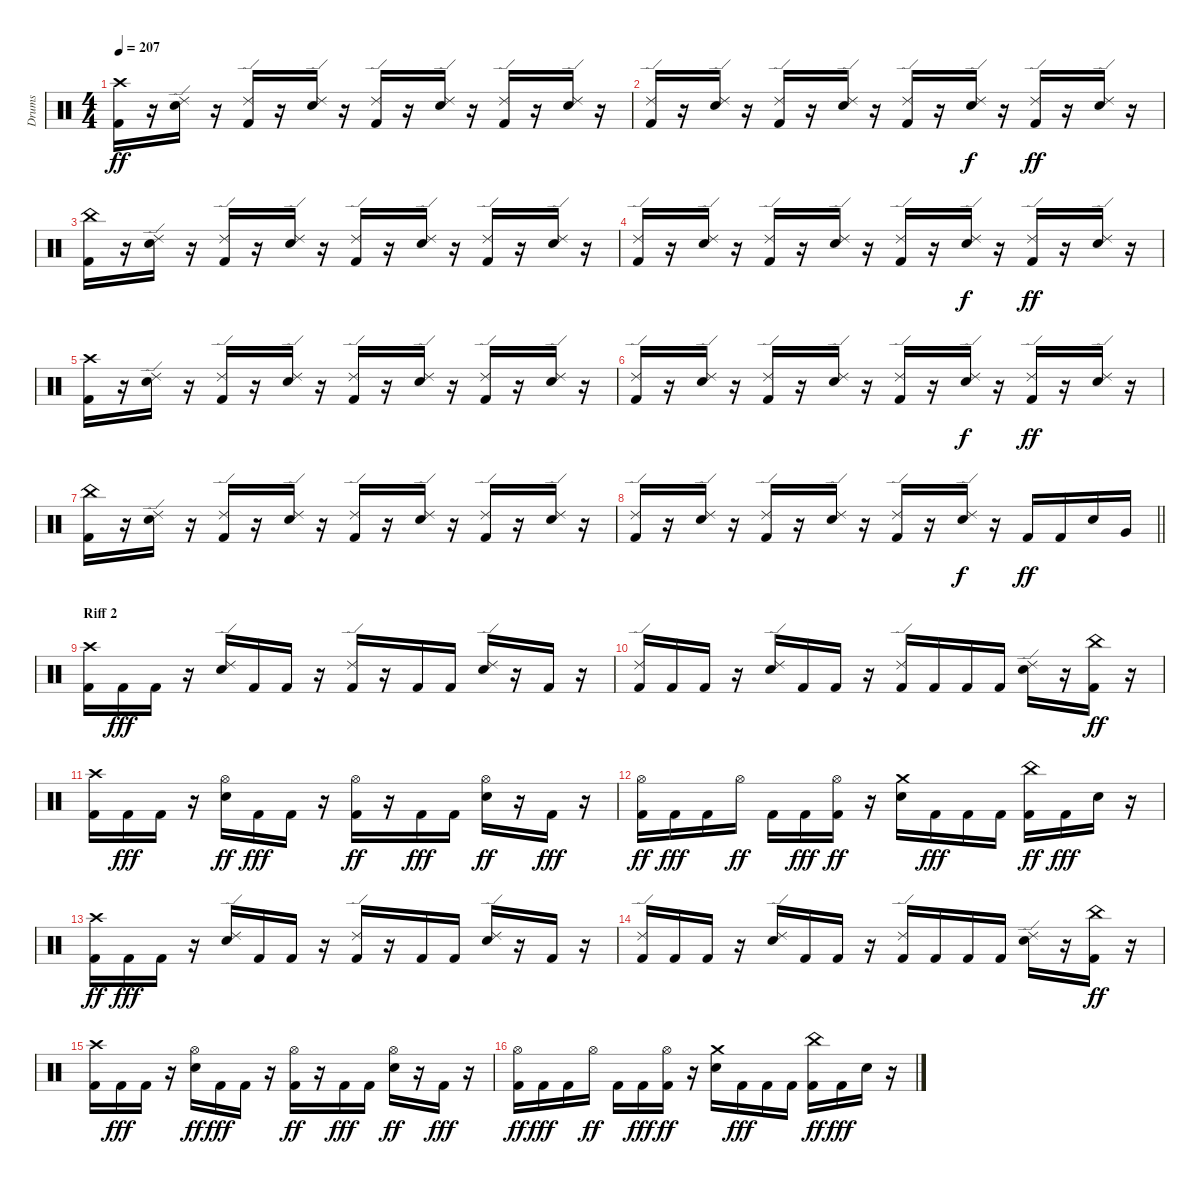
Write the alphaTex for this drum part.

\track ("Drums" "Drums") {instrument percussion}
\staff {score}
\articulation defaults
\ts (4 4)
\tempo 207
\clef neutral
\ks c
("Kick (hit) 2" "Crash high (hit)").16{dy ff} r.16 ("Snare (hit) 2" "Ride (edge) 2").16 r.16 ("Kick (hit) 2" "Ride (edge) 2").16 r.16 ("Snare (hit) 2" "Ride (edge) 2").16 r.16 ("Kick (hit) 2" "Ride (edge) 2").16 r.16 ("Snare (hit) 2" "Ride (edge) 2").16 r.16 ("Kick (hit) 2" "Ride (edge) 2").16 r.16 ("Snare (hit) 2" "Ride (edge) 2").16 r.16 |
("Kick (hit) 2" "Ride (edge) 2").16 r.16 ("Snare (hit) 2" "Ride (edge) 2").16 r.16 ("Kick (hit) 2" "Ride (edge) 2").16 r.16 ("Snare (hit) 2" "Ride (edge) 2").16 r.16 ("Kick (hit) 2" "Ride (edge) 2").16 r.16 ("Snare (hit) 2" "Ride (edge) 2").16{dy f} r.16 ("Kick (hit) 2" "Ride (edge) 2").16{dy ff} r.16 ("Snare (hit) 2" "Ride (edge) 2").16 r.16 |
("Kick (hit) 2" "China (hit)").16 r.16 ("Snare (hit) 2" "Ride (edge) 2").16 r.16 ("Kick (hit) 2" "Ride (edge) 2").16 r.16 ("Snare (hit) 2" "Ride (edge) 2").16 r.16 ("Kick (hit) 2" "Ride (edge) 2").16 r.16 ("Snare (hit) 2" "Ride (edge) 2").16 r.16 ("Kick (hit) 2" "Ride (edge) 2").16 r.16 ("Snare (hit) 2" "Ride (edge) 2").16 r.16 |
("Kick (hit) 2" "Ride (edge) 2").16 r.16 ("Snare (hit) 2" "Ride (edge) 2").16 r.16 ("Kick (hit) 2" "Ride (edge) 2").16 r.16 ("Snare (hit) 2" "Ride (edge) 2").16 r.16 ("Kick (hit) 2" "Ride (edge) 2").16 r.16 ("Snare (hit) 2" "Ride (edge) 2").16{dy f} r.16 ("Kick (hit) 2" "Ride (edge) 2").16{dy ff} r.16 ("Snare (hit) 2" "Ride (edge) 2").16 r.16 |
("Kick (hit) 2" "Crash high (hit)").16 r.16 ("Snare (hit) 2" "Ride (edge) 2").16 r.16 ("Kick (hit) 2" "Ride (edge) 2").16 r.16 ("Snare (hit) 2" "Ride (edge) 2").16 r.16 ("Kick (hit) 2" "Ride (edge) 2").16 r.16 ("Snare (hit) 2" "Ride (edge) 2").16 r.16 ("Kick (hit) 2" "Ride (edge) 2").16 r.16 ("Snare (hit) 2" "Ride (edge) 2").16 r.16 |
("Kick (hit) 2" "Ride (edge) 2").16 r.16 ("Snare (hit) 2" "Ride (edge) 2").16 r.16 ("Kick (hit) 2" "Ride (edge) 2").16 r.16 ("Snare (hit) 2" "Ride (edge) 2").16 r.16 ("Kick (hit) 2" "Ride (edge) 2").16 r.16 ("Snare (hit) 2" "Ride (edge) 2").16{dy f} r.16 ("Kick (hit) 2" "Ride (edge) 2").16{dy ff} r.16 ("Snare (hit) 2" "Ride (edge) 2").16 r.16 |
("Kick (hit) 2" "China (hit)").16 r.16 ("Snare (hit) 2" "Ride (edge) 2").16 r.16 ("Kick (hit) 2" "Ride (edge) 2").16 r.16 ("Snare (hit) 2" "Ride (edge) 2").16 r.16 ("Kick (hit) 2" "Ride (edge) 2").16 r.16 ("Snare (hit) 2" "Ride (edge) 2").16 r.16 ("Kick (hit) 2" "Ride (edge) 2").16 r.16 ("Snare (hit) 2" "Ride (edge) 2").16 r.16 |
\barLineRight lightlight
("Kick (hit) 2" "Ride (edge) 2").16 r.16 ("Snare (hit) 2" "Ride (edge) 2").16 r.16 ("Kick (hit) 2" "Ride (edge) 2").16 r.16 ("Snare (hit) 2" "Ride (edge) 2").16 r.16 ("Kick (hit) 2" "Ride (edge) 2").16 r.16 ("Snare (hit) 2" "Ride (edge) 2").16{dy f} r.16 "Kick (hit) 2".16{dy ff} "Kick (hit) 2".16 "Snare (hit) 2".16 "Very Low Tom (hit)".16 |
\section ("" "Riff 2")
("Kick (hit) 2" "Crash high (hit)").16 "Kick (hit) 2".16{dy fff} "Kick (hit) 2".16 r.16 ("Snare (hit) 2" "Ride (edge) 2").16 "Kick (hit) 2".16 "Kick (hit) 2".16 r.16 ("Kick (hit) 2" "Ride (edge) 2").16 r.16 "Kick (hit) 2".16 "Kick (hit) 2".16 ("Snare (hit) 2" "Ride (edge) 2").16 r.16 "Kick (hit) 2".16 r.16 |
("Kick (hit) 2" "Ride (edge) 2").16 "Kick (hit) 2".16 "Kick (hit) 2".16 r.16 ("Snare (hit) 2" "Ride (edge) 2").16 "Kick (hit) 2".16 "Kick (hit) 2".16 r.16 ("Kick (hit) 2" "Ride (edge) 2").16 "Kick (hit) 2".16 "Kick (hit) 2".16 "Kick (hit) 2".16 ("Snare (hit) 2" "Ride (edge) 2").16 r.16 ("Kick (hit) 2" "China (hit)").16{dy ff} r.16 |
("Kick (hit) 2" "Crash high (hit)").16 "Kick (hit) 2".16{dy fff} "Kick (hit) 2".16 r.16 ("Snare (hit) 2" "Hi-Hat (open)").16{dy ff} "Kick (hit) 2".16{dy fff} "Kick (hit) 2".16 r.16 ("Kick (hit) 2" "Hi-Hat (open)").16{dy ff} r.16 "Kick (hit) 2".16{dy fff} "Kick (hit) 2".16 ("Snare (hit) 2" "Hi-Hat (open)").16{dy ff} r.16 "Kick (hit) 2".16{dy fff} r.16 |
("Kick (hit) 2" "Hi-Hat (open)").16{dy ff} "Kick (hit) 2".16{dy fff} "Kick (hit) 2".16 "Hi-Hat (open)".16{dy ff} "Kick (hit) 2".16 "Kick (hit) 2".16{dy fff} ("Kick (hit) 2" "Hi-Hat (open)").16{dy ff} r.16 ("Snare (hit) 2" "Crash medium (hit)").16 "Kick (hit) 2".16{dy fff} "Kick (hit) 2".16 "Kick (hit) 2".16 ("Kick (hit) 2" "China (hit)").16{dy ff} "Kick (hit) 2".16{dy fff} "Snare (hit) 2".16 r.16 |
("Kick (hit) 2" "Crash high (hit)").16{dy ff} "Kick (hit) 2".16{dy fff} "Kick (hit) 2".16 r.16 ("Snare (hit) 2" "Ride (edge) 2").16 "Kick (hit) 2".16 "Kick (hit) 2".16 r.16 ("Kick (hit) 2" "Ride (edge) 2").16 r.16 "Kick (hit) 2".16 "Kick (hit) 2".16 ("Snare (hit) 2" "Ride (edge) 2").16 r.16 "Kick (hit) 2".16 r.16 |
("Kick (hit) 2" "Ride (edge) 2").16 "Kick (hit) 2".16 "Kick (hit) 2".16 r.16 ("Snare (hit) 2" "Ride (edge) 2").16 "Kick (hit) 2".16 "Kick (hit) 2".16 r.16 ("Kick (hit) 2" "Ride (edge) 2").16 "Kick (hit) 2".16 "Kick (hit) 2".16 "Kick (hit) 2".16 ("Snare (hit) 2" "Ride (edge) 2").16 r.16 ("Kick (hit) 2" "China (hit)").16{dy ff} r.16 |
("Kick (hit) 2" "Crash high (hit)").16 "Kick (hit) 2".16{dy fff} "Kick (hit) 2".16 r.16 ("Snare (hit) 2" "Hi-Hat (open)").16{dy ff} "Kick (hit) 2".16{dy fff} "Kick (hit) 2".16 r.16 ("Kick (hit) 2" "Hi-Hat (open)").16{dy ff} r.16 "Kick (hit) 2".16{dy fff} "Kick (hit) 2".16 ("Snare (hit) 2" "Hi-Hat (open)").16{dy ff} r.16 "Kick (hit) 2".16{dy fff} r.16 |
("Kick (hit) 2" "Hi-Hat (open)").16{dy ff} "Kick (hit) 2".16{dy fff} "Kick (hit) 2".16 "Hi-Hat (open)".16{dy ff} "Kick (hit) 2".16 "Kick (hit) 2".16{dy fff} ("Kick (hit) 2" "Hi-Hat (open)").16{dy ff} r.16 ("Snare (hit) 2" "Crash medium (hit)").16 "Kick (hit) 2".16{dy fff} "Kick (hit) 2".16 "Kick (hit) 2".16 ("Kick (hit) 2" "China (hit)").16{dy ff} "Kick (hit) 2".16{dy fff} "Snare (hit) 2".16 r.16
